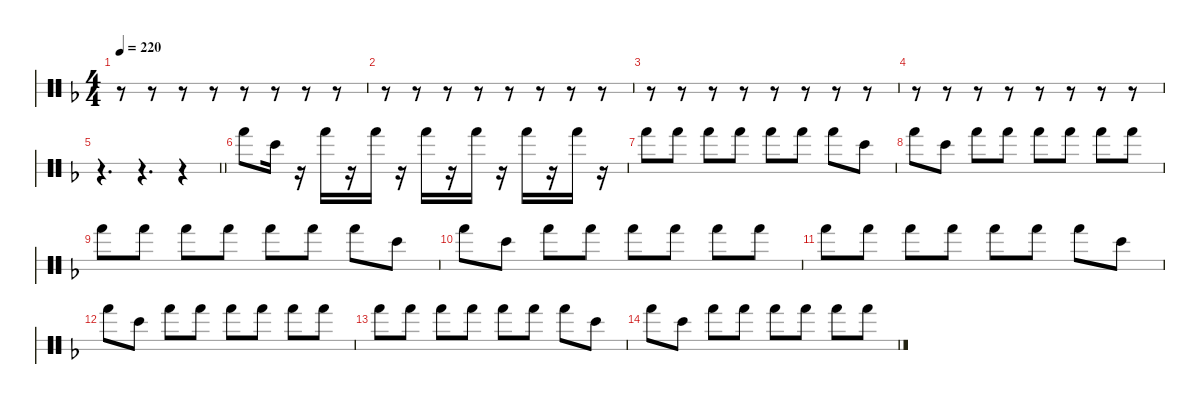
\hideDynamics
\bracketExtendMode nobrackets
\singleTrackTrackNamePolicy hidden
\multiTrackTrackNamePolicy hidden
\firstSystemTrackNameMode fullname
\firstSystemTrackNameOrientation horizontal
\otherSystemsTrackNameOrientation horizontal
\track ("Bongos" "bngKit") {instrument percussion}
\staff {score 2}
\articulation defaults
\ts (4 4)
\tempo 220
\clef neutral
\ks dminor
r.8{dy p} r.8 r.8 r.8 r.8 r.8 r.8 r.8 |
r.8 r.8 r.8 r.8 r.8 r.8 r.8 r.8 |
r.8 r.8 r.8 r.8 r.8 r.8 r.8 r.8 |
r.8 r.8 r.8 r.8 r.8 r.8 r.8 r.8 |
\barLineRight lightlight
r.4{d} r.4{d} r.4 |
"Hand (hit)"{acc forcenatural}.8{dy f} "Bongo High (hit)"{acc forcenatural}.16{dy pp} r.16 "Hand (hit)"{acc forcenatural}.16{dy p} r.16 "Hand (hit)"{acc forcenatural}.16{dy mp} r.16 "Hand (hit)"{acc forcenatural}.16{dy mf} r.16 "Hand (hit)"{acc forcenatural}.16{dy mp} r.16 "Hand (hit)"{acc forcenatural}.16{dy p} r.16 "Hand (hit)"{acc forcenatural}.16{dy pp} r.16 |
"Hand (hit)"{acc forcenatural}.8{dy p} "Hand (hit)"{acc forcenatural}.8{dy pp} "Hand (hit)"{acc forcenatural}.8 "Hand (hit)"{acc forcenatural}.8{dy mp} "Hand (hit)"{acc forcenatural}.8{dy p} "Hand (hit)"{acc forcenatural}.8 "Hand (hit)"{acc forcenatural}.8{dy mp} "Bongo High (hit)"{acc forcenatural}.8{dy mf} |
"Hand (hit)"{acc forcenatural}.8{dy f} "Bongo High (hit)"{acc forcenatural}.8{dy p} "Hand (hit)"{acc forcenatural}.8{dy pp} "Hand (hit)"{acc forcenatural}.8{dy mp} "Hand (hit)"{acc forcenatural}.8{dy p} "Hand (hit)"{acc forcenatural}.8 "Hand (hit)"{acc forcenatural}.8{dy mp} "Hand (hit)"{acc forcenatural}.8{dy pp} |
"Hand (hit)"{acc forcenatural}.8{dy mp} "Hand (hit)"{acc forcenatural}.8{dy pp} "Hand (hit)"{acc forcenatural}.8 "Hand (hit)"{acc forcenatural}.8{dy mp} "Hand (hit)"{acc forcenatural}.8{dy p} "Hand (hit)"{acc forcenatural}.8 "Hand (hit)"{acc forcenatural}.8{dy mp} "Bongo High (hit)"{acc forcenatural}.8{dy mf} |
"Hand (hit)"{acc forcenatural}.8{dy f} "Bongo High (hit)"{acc forcenatural}.8{dy p} "Hand (hit)"{acc forcenatural}.8{dy pp} "Hand (hit)"{acc forcenatural}.8{dy mp} "Hand (hit)"{acc forcenatural}.8{dy p} "Hand (hit)"{acc forcenatural}.8 "Hand (hit)"{acc forcenatural}.8{dy mp} "Hand (hit)"{acc forcenatural}.8{dy pp} |
"Hand (hit)"{acc forcenatural}.8{dy mp} "Hand (hit)"{acc forcenatural}.8{dy pp} "Hand (hit)"{acc forcenatural}.8 "Hand (hit)"{acc forcenatural}.8{dy mp} "Hand (hit)"{acc forcenatural}.8{dy p} "Hand (hit)"{acc forcenatural}.8 "Hand (hit)"{acc forcenatural}.8{dy mp} "Bongo High (hit)"{acc forcenatural}.8{dy mf} |
"Hand (hit)"{acc forcenatural}.8{dy f} "Bongo High (hit)"{acc forcenatural}.8{dy p} "Hand (hit)"{acc forcenatural}.8{dy pp} "Hand (hit)"{acc forcenatural}.8{dy mp} "Hand (hit)"{acc forcenatural}.8{dy p} "Hand (hit)"{acc forcenatural}.8 "Hand (hit)"{acc forcenatural}.8{dy mp} "Hand (hit)"{acc forcenatural}.8{dy pp} |
"Hand (hit)"{acc forcenatural}.8{dy mp} "Hand (hit)"{acc forcenatural}.8{dy pp} "Hand (hit)"{acc forcenatural}.8 "Hand (hit)"{acc forcenatural}.8{dy mp} "Hand (hit)"{acc forcenatural}.8{dy p} "Hand (hit)"{acc forcenatural}.8 "Hand (hit)"{acc forcenatural}.8{dy mp} "Bongo High (hit)"{acc forcenatural}.8{dy mf} |
"Hand (hit)"{acc forcenatural}.8{dy f} "Bongo High (hit)"{acc forcenatural}.8{dy p} "Hand (hit)"{acc forcenatural}.8{dy pp} "Hand (hit)"{acc forcenatural}.8{dy mp} "Hand (hit)"{acc forcenatural}.8{dy p} "Hand (hit)"{acc forcenatural}.8 "Hand (hit)"{acc forcenatural}.8{dy mp} "Hand (hit)"{acc forcenatural}.8{dy pp}
